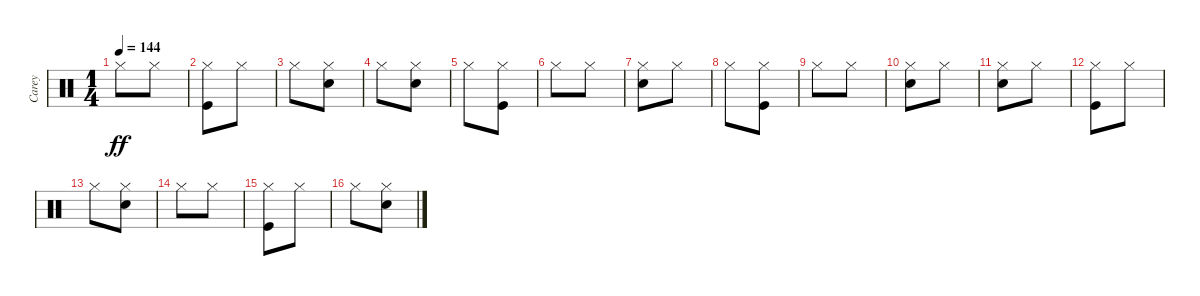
\track ("Carey" "Carey") {instrument percussion}
\staff {score}
\articulation defaults
\ts (1 4)
\tempo 144
\clef neutral
\ks c "Hi-Hat (closed)".8{dy ff} "Hi-Hat (closed)".8
|
("Kick (hit)" "Hi-Hat (closed)").8 "Hi-Hat (closed)".8 |
"Hi-Hat (closed)".8 ("Snare (hit) 2" "Hi-Hat (closed)").8 |
"Hi-Hat (closed)".8 ("Snare (hit) 2" "Hi-Hat (closed)").8 |
"Hi-Hat (closed)".8 ("Kick (hit)" "Hi-Hat (closed)").8 |
"Hi-Hat (closed)".8 "Hi-Hat (closed)".8 |
("Snare (hit) 2" "Hi-Hat (closed)").8 "Hi-Hat (closed)".8 |
"Hi-Hat (closed)".8 ("Kick (hit)" "Hi-Hat (closed)").8 |
"Hi-Hat (closed)".8 "Hi-Hat (closed)".8 |
("Snare (hit) 2" "Hi-Hat (closed)").8 "Hi-Hat (closed)".8 |
("Snare (hit) 2" "Hi-Hat (closed)").8 "Hi-Hat (closed)".8 |
("Kick (hit)" "Hi-Hat (closed)").8 "Hi-Hat (closed)".8 |
"Hi-Hat (closed)".8 ("Snare (hit) 2" "Hi-Hat (closed)").8 |
"Hi-Hat (closed)".8 "Hi-Hat (closed)".8 |
("Kick (hit)" "Hi-Hat (closed)").8 "Hi-Hat (closed)".8 |
"Hi-Hat (closed)".8 ("Snare (hit) 2" "Hi-Hat (closed)").8
